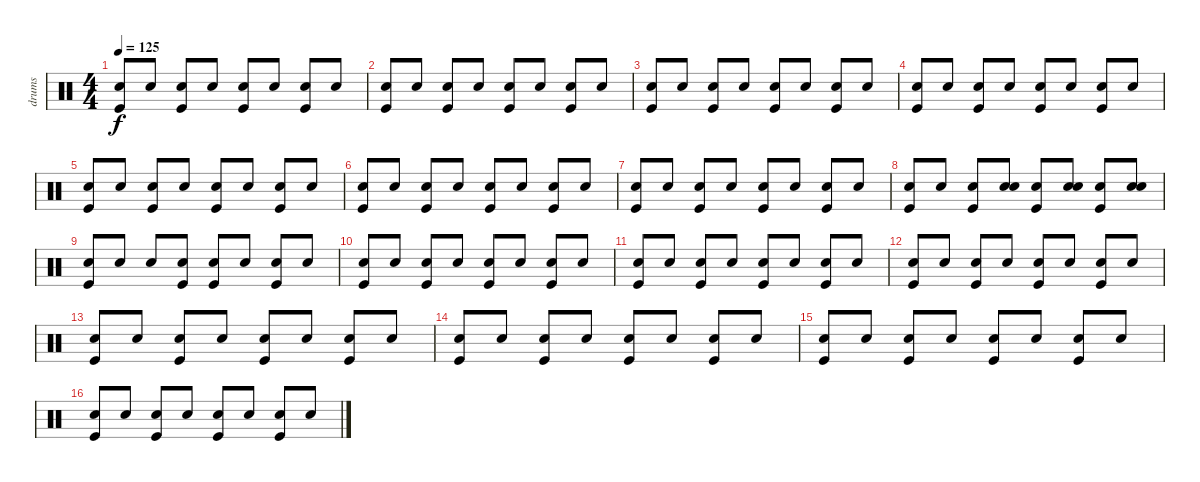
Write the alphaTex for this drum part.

\track ("drums" "drums") {instrument percussion}
\staff {score}
\articulation defaults
\ts (4 4)
\tempo 125
\clef neutral
\ks c
("Kick (hit)" "Snare (hit) 2").8{dy f} "Snare (hit) 2".8 ("Kick (hit)" "Hand Clap (hit)").8 "Snare (hit) 2".8 ("Kick (hit)" "Snare (hit) 2").8 "Snare (hit) 2".8 ("Kick (hit)" "Hand Clap (hit)").8 "Snare (hit) 2".8 |
("Kick (hit)" "Snare (hit) 2").8 "Snare (hit) 2".8 ("Kick (hit)" "Hand Clap (hit)").8 "Snare (hit) 2".8 ("Kick (hit)" "Snare (hit) 2").8 "Snare (hit) 2".8 ("Kick (hit)" "Hand Clap (hit)").8 "Snare (hit) 2".8 |
("Kick (hit)" "Snare (hit) 2").8 "Snare (hit) 2".8 ("Kick (hit)" "Hand Clap (hit)").8 "Snare (hit) 2".8 ("Kick (hit)" "Snare (hit) 2").8 "Snare (hit) 2".8 ("Kick (hit)" "Hand Clap (hit)").8 "Snare (hit) 2".8 |
("Kick (hit)" "Snare (hit) 2").8 "Snare (hit) 2".8 ("Kick (hit)" "Hand Clap (hit)").8 "Snare (hit) 2".8 ("Kick (hit)" "Snare (hit) 2").8 "Snare (hit) 2".8 ("Kick (hit)" "Hand Clap (hit)").8 "Snare (hit) 2".8 |
("Kick (hit)" "Snare (hit) 2").8 "Snare (hit) 2".8 ("Kick (hit)" "Hand Clap (hit)").8 "Snare (hit) 2".8 ("Kick (hit)" "Snare (hit) 2").8 "Snare (hit) 2".8 ("Kick (hit)" "Hand Clap (hit)").8 "Snare (hit) 2".8 |
("Kick (hit)" "Snare (hit) 2").8 "Snare (hit) 2".8 ("Kick (hit)" "Hand Clap (hit)").8 "Snare (hit) 2".8 ("Kick (hit)" "Snare (hit) 2").8 "Snare (hit) 2".8 ("Kick (hit)" "Hand Clap (hit)").8 "Snare (hit) 2".8 |
("Kick (hit)" "Snare (hit) 2").8 "Snare (hit) 2".8 ("Kick (hit)" "Hand Clap (hit)").8 "Snare (hit) 2".8 ("Kick (hit)" "Snare (hit) 2").8 "Snare (hit) 2".8 ("Kick (hit)" "Hand Clap (hit)").8 "Snare (hit) 2".8 |
("Kick (hit)" "Snare (hit) 2").8 "Snare (hit) 2".8 ("Kick (hit)" "Snare (hit) 2").8 ("Snare (hit) 2" "Snare (hit) 2").8 ("Kick (hit)" "Snare (hit) 2").8 ("Snare (hit) 2" "Snare (hit) 2").8 ("Kick (hit)" "Snare (hit) 2").8 ("Snare (hit) 2" "Snare (hit) 2").8 |
("Kick (hit)" "Snare (hit) 2").8 "Snare (hit) 2".8 "Hand Clap (hit)".8 ("Kick (hit)" "Snare (hit) 2").8 ("Kick (hit)" "Snare (hit) 2").8 "Snare (hit) 2".8 ("Kick (hit)" "Hand Clap (hit)").8 "Snare (hit) 2".8 |
("Snare (hit) 2" "Kick (hit)").8 "Snare (hit) 2".8 ("Hand Clap (hit)" "Kick (hit)").8 "Snare (hit) 2".8 ("Snare (hit) 2" "Kick (hit)").8 "Snare (hit) 2".8 ("Hand Clap (hit)" "Kick (hit)").8 "Snare (hit) 2".8 |
("Kick (hit)" "Snare (hit) 2").8 "Snare (hit) 2".8 ("Kick (hit)" "Hand Clap (hit)").8 "Snare (hit) 2".8 ("Kick (hit)" "Snare (hit) 2").8 "Snare (hit) 2".8 ("Kick (hit)" "Hand Clap (hit)").8 "Snare (hit) 2".8 |
("Kick (hit)" "Snare (hit) 2").8 "Snare (hit) 2".8 ("Kick (hit)" "Hand Clap (hit)").8 "Snare (hit) 2".8 ("Kick (hit)" "Snare (hit) 2").8 "Snare (hit) 2".8 ("Kick (hit)" "Hand Clap (hit)").8 "Snare (hit) 2".8 |
("Kick (hit)" "Snare (hit) 2").8 "Snare (hit) 2".8 ("Kick (hit)" "Hand Clap (hit)").8 "Snare (hit) 2".8 ("Kick (hit)" "Snare (hit) 2").8 "Snare (hit) 2".8 ("Kick (hit)" "Hand Clap (hit)").8 "Snare (hit) 2".8 |
("Kick (hit)" "Snare (hit) 2").8 "Snare (hit) 2".8 ("Kick (hit)" "Hand Clap (hit)").8 "Snare (hit) 2".8 ("Kick (hit)" "Snare (hit) 2").8 "Snare (hit) 2".8 ("Kick (hit)" "Hand Clap (hit)").8 "Snare (hit) 2".8 |
("Kick (hit)" "Snare (hit) 2").8 "Snare (hit) 2".8 ("Kick (hit)" "Hand Clap (hit)").8 "Snare (hit) 2".8 ("Kick (hit)" "Snare (hit) 2").8 "Snare (hit) 2".8 ("Kick (hit)" "Hand Clap (hit)").8 "Snare (hit) 2".8 |
("Kick (hit)" "Snare (hit) 2").8 "Snare (hit) 2".8 ("Kick (hit)" "Hand Clap (hit)").8 "Snare (hit) 2".8 ("Kick (hit)" "Snare (hit) 2").8 "Snare (hit) 2".8 ("Kick (hit)" "Hand Clap (hit)").8 "Snare (hit) 2".8
